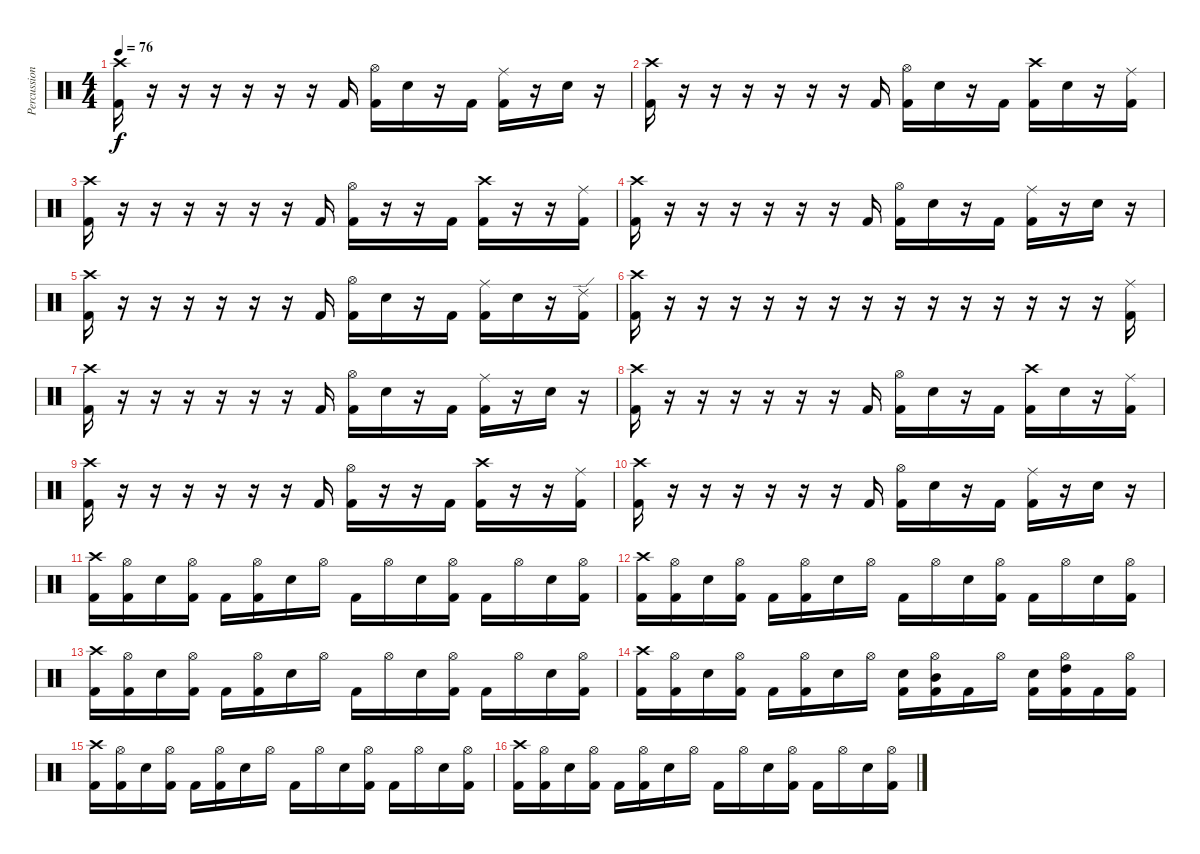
\track ("Percussion" "Percussion") {instrument percussion}
\staff {score}
\articulation defaults
\ts (4 4)
\tempo 76
\clef neutral
\ks c
("Crash high (hit)" "Kick (hit) 2").16{dy f} r.16 r.16 r.16 r.16 r.16 r.16 "Kick (hit) 2".16 ("Hi-Hat (open)" "Kick (hit) 2").16 "Electric Snare (hit)".16 r.16 "Kick (hit) 2".16 ("Ride (middle)" "Kick (hit) 2").16 r.16 "Electric Snare (hit)".16 r.16 |
("Crash high (hit)" "Kick (hit) 2").16 r.16 r.16 r.16 r.16 r.16 r.16 "Kick (hit) 2".16 ("Hi-Hat (open)" "Kick (hit) 2").16 "Electric Snare (hit)".16 r.16 "Kick (hit) 2".16 ("Crash high (hit)" "Kick (hit) 2").16 "Electric Snare (hit)".16 r.16 ("Ride (middle)" "Kick (hit) 2").16 |
("Crash high (hit)" "Kick (hit) 2").16 r.16 r.16 r.16 r.16 r.16 r.16 "Kick (hit) 2".16 ("Hi-Hat (open)" "Kick (hit) 2").16 r.16 r.16 "Kick (hit) 2".16 ("Crash high (hit)" "Kick (hit) 2").16 r.16 r.16 ("Ride (middle)" "Kick (hit) 2").16 |
("Crash high (hit)" "Kick (hit) 2").16 r.16 r.16 r.16 r.16 r.16 r.16 "Kick (hit) 2".16 ("Hi-Hat (open)" "Kick (hit) 2").16 "Electric Snare (hit)".16 r.16 "Kick (hit) 2".16 ("Ride (middle)" "Kick (hit) 2").16 r.16 "Electric Snare (hit)".16 r.16 |
("Crash high (hit)" "Kick (hit) 2").16 r.16 r.16 r.16 r.16 r.16 r.16 "Kick (hit) 2".16 ("Hi-Hat (open)" "Kick (hit) 2").16 "Electric Snare (hit)".16 r.16 "Kick (hit) 2".16 ("Ride (middle)" "Kick (hit) 2").16 "Electric Snare (hit)".16 r.16 ("Ride (edge) 2" "Kick (hit) 2").16 |
("Crash high (hit)" "Kick (hit) 2").16 r.16 r.16 r.16 r.16 r.16 r.16 r.16 r.16 r.16 r.16 r.16 r.16 r.16 r.16 ("Ride (middle)" "Kick (hit) 2").16 |
("Crash high (hit)" "Kick (hit) 2").16 r.16 r.16 r.16 r.16 r.16 r.16 "Kick (hit) 2".16 ("Hi-Hat (open)" "Kick (hit) 2").16 "Electric Snare (hit)".16 r.16 "Kick (hit) 2".16 ("Ride (middle)" "Kick (hit) 2").16 r.16 "Electric Snare (hit)".16 r.16 |
("Crash high (hit)" "Kick (hit) 2").16 r.16 r.16 r.16 r.16 r.16 r.16 "Kick (hit) 2".16 ("Hi-Hat (open)" "Kick (hit) 2").16 "Electric Snare (hit)".16 r.16 "Kick (hit) 2".16 ("Crash high (hit)" "Kick (hit) 2").16 "Electric Snare (hit)".16 r.16 ("Ride (middle)" "Kick (hit) 2").16 |
("Crash high (hit)" "Kick (hit) 2").16 r.16 r.16 r.16 r.16 r.16 r.16 "Kick (hit) 2".16 ("Hi-Hat (open)" "Kick (hit) 2").16 r.16 r.16 "Kick (hit) 2".16 ("Crash high (hit)" "Kick (hit) 2").16 r.16 r.16 ("Ride (middle)" "Kick (hit) 2").16 |
("Crash high (hit)" "Kick (hit) 2").16 r.16 r.16 r.16 r.16 r.16 r.16 "Kick (hit) 2".16 ("Hi-Hat (open)" "Kick (hit) 2").16 "Electric Snare (hit)".16 r.16 "Kick (hit) 2".16 ("Ride (middle)" "Kick (hit) 2").16 r.16 "Electric Snare (hit)".16 r.16 |
("Crash high (hit)" "Kick (hit) 2").16 ("Hi-Hat (open)" "Kick (hit) 2").16 "Electric Snare (hit)".16 ("Hi-Hat (open)" "Kick (hit) 2").16 "Kick (hit) 2".16 ("Hi-Hat (open)" "Kick (hit) 2").16 "Electric Snare (hit)".16 "Hi-Hat (open)".16 "Kick (hit) 2".16 "Hi-Hat (open)".16 "Electric Snare (hit)".16 ("Hi-Hat (open)" "Kick (hit) 2").16 "Kick (hit) 2".16 "Hi-Hat (open)".16 "Electric Snare (hit)".16 ("Hi-Hat (open)" "Kick (hit) 2").16 |
("Crash high (hit)" "Kick (hit) 2").16 ("Hi-Hat (open)" "Kick (hit) 2").16 "Electric Snare (hit)".16 ("Hi-Hat (open)" "Kick (hit) 2").16 "Kick (hit) 2".16 ("Hi-Hat (open)" "Kick (hit) 2").16 "Electric Snare (hit)".16 "Hi-Hat (open)".16 "Kick (hit) 2".16 "Hi-Hat (open)".16 "Electric Snare (hit)".16 ("Hi-Hat (open)" "Kick (hit) 2").16 "Kick (hit) 2".16 "Hi-Hat (open)".16 "Electric Snare (hit)".16 ("Hi-Hat (open)" "Kick (hit) 2").16 |
("Crash high (hit)" "Kick (hit) 2").16 ("Hi-Hat (open)" "Kick (hit) 2").16 "Electric Snare (hit)".16 ("Hi-Hat (open)" "Kick (hit) 2").16 "Kick (hit) 2".16 ("Hi-Hat (open)" "Kick (hit) 2").16 "Electric Snare (hit)".16 "Hi-Hat (open)".16 "Kick (hit) 2".16 "Hi-Hat (open)".16 "Electric Snare (hit)".16 ("Hi-Hat (open)" "Kick (hit) 2").16 "Kick (hit) 2".16 "Hi-Hat (open)".16 "Electric Snare (hit)".16 ("Hi-Hat (open)" "Kick (hit) 2").16 |
("Crash high (hit)" "Kick (hit) 2").16 ("Hi-Hat (open)" "Kick (hit) 2").16 "Electric Snare (hit)".16 ("Hi-Hat (open)" "Kick (hit) 2").16 "Kick (hit) 2".16 ("Hi-Hat (open)" "Kick (hit) 2").16 "Electric Snare (hit)".16 "Hi-Hat (open)".16 ("Electric Snare (hit)" "Kick (hit) 2").16 ("Hi-Hat (open)" "Mid Tom (hit)" "Kick (hit) 2").16 "Kick (hit) 2".16 "Hi-Hat (open)".16 ("Electric Snare (hit)" "Kick (hit) 2").16 ("Hi-Hat (open)" "High Tom (hit)" "Kick (hit) 2").16 "Kick (hit) 2".16 ("Hi-Hat (open)" "Kick (hit) 2").16 |
("Crash high (hit)" "Kick (hit) 2").16 ("Hi-Hat (open)" "Kick (hit) 2").16 "Electric Snare (hit)".16 ("Hi-Hat (open)" "Kick (hit) 2").16 "Kick (hit) 2".16 ("Hi-Hat (open)" "Kick (hit) 2").16 "Electric Snare (hit)".16 "Hi-Hat (open)".16 "Kick (hit) 2".16 "Hi-Hat (open)".16 "Electric Snare (hit)".16 ("Hi-Hat (open)" "Kick (hit) 2").16 "Kick (hit) 2".16 "Hi-Hat (open)".16 "Electric Snare (hit)".16 ("Hi-Hat (open)" "Kick (hit) 2").16 |
("Crash high (hit)" "Kick (hit) 2").16 ("Hi-Hat (open)" "Kick (hit) 2").16 "Electric Snare (hit)".16 ("Hi-Hat (open)" "Kick (hit) 2").16 "Kick (hit) 2".16 ("Hi-Hat (open)" "Kick (hit) 2").16 "Electric Snare (hit)".16 "Hi-Hat (open)".16 "Kick (hit) 2".16 "Hi-Hat (open)".16 "Electric Snare (hit)".16 ("Hi-Hat (open)" "Kick (hit) 2").16 "Kick (hit) 2".16 "Hi-Hat (open)".16 "Electric Snare (hit)".16 ("Hi-Hat (open)" "Kick (hit) 2").16
